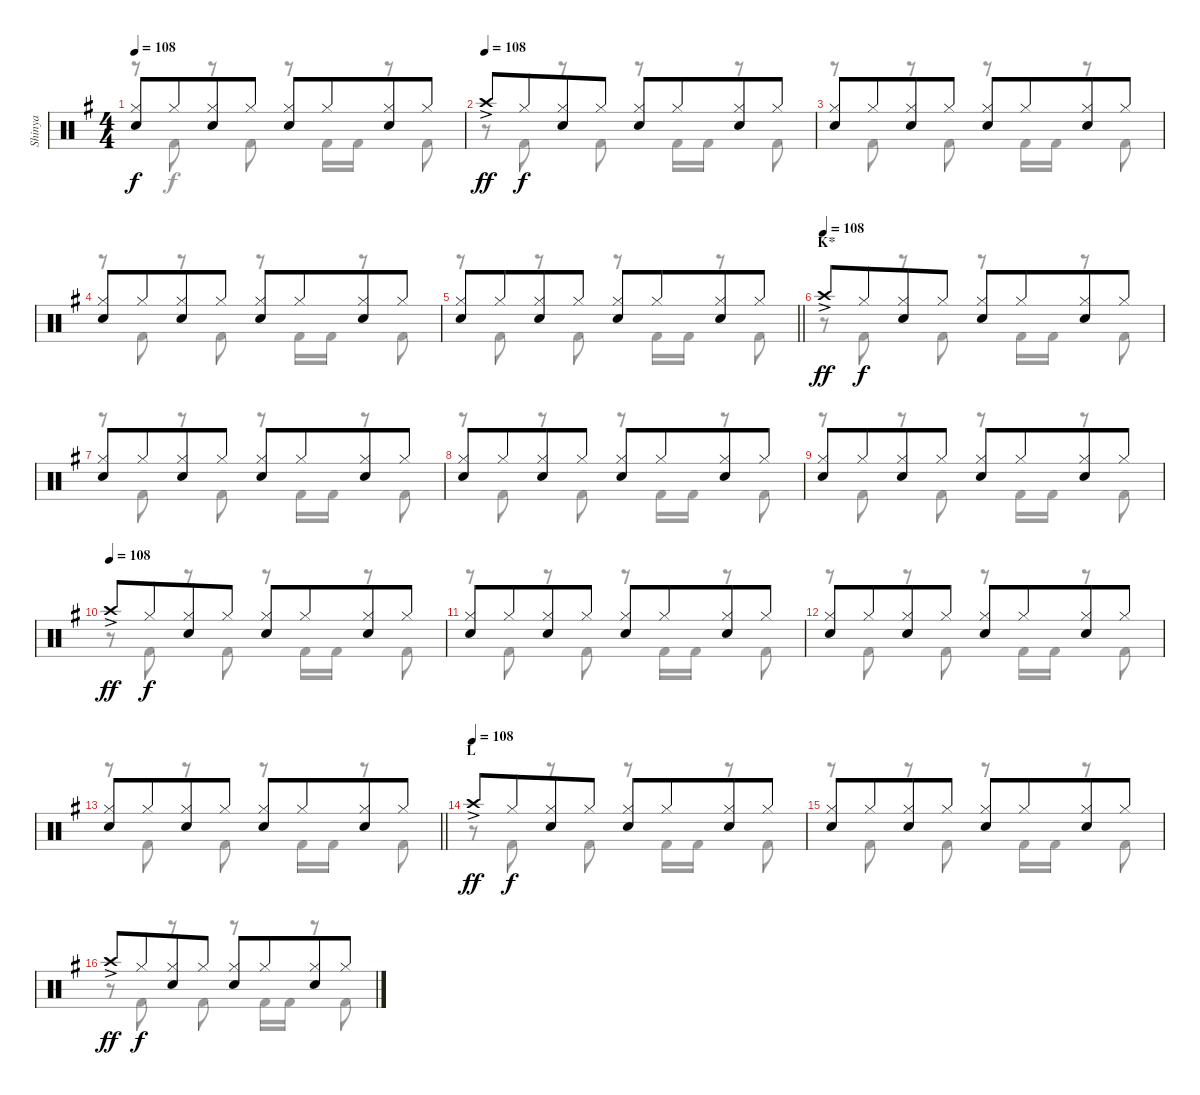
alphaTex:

\track ("Shinya" "Shinya") {instrument percussion}
\staff {score}
\articulation defaults
\voice
\ts (4 4)
\tempo 108
\clef neutral
\ks eminor
("Hi-Hat (closed)" "Snare (hit) 2").8{dy f} "Hi-Hat (closed)".8{beam merge} ("Hi-Hat (closed)" "Snare (hit) 2").8 "Hi-Hat (closed)".8 ("Hi-Hat (closed)" "Snare (hit) 2").8 "Hi-Hat (closed)".8{beam merge} ("Hi-Hat (closed)" "Snare (hit) 2").8 "Hi-Hat (closed)".8 |
\tempo (108)
"Crash high (hit)"{ac}.8{dy ff} "Hi-Hat (closed)".8{dy f beam merge} ("Hi-Hat (closed)" "Snare (hit) 2").8 "Hi-Hat (closed)".8 ("Hi-Hat (closed)" "Snare (hit) 2").8 "Hi-Hat (closed)".8{beam merge} ("Hi-Hat (closed)" "Snare (hit) 2").8 "Hi-Hat (closed)".8 |
("Hi-Hat (closed)" "Snare (hit) 2").8 "Hi-Hat (closed)".8{beam merge} ("Hi-Hat (closed)" "Snare (hit) 2").8 "Hi-Hat (closed)".8 ("Hi-Hat (closed)" "Snare (hit) 2").8 "Hi-Hat (closed)".8{beam merge} ("Hi-Hat (closed)" "Snare (hit) 2").8 "Hi-Hat (closed)".8 |
("Hi-Hat (closed)" "Snare (hit) 2").8 "Hi-Hat (closed)".8{beam merge} ("Hi-Hat (closed)" "Snare (hit) 2").8 "Hi-Hat (closed)".8 ("Hi-Hat (closed)" "Snare (hit) 2").8 "Hi-Hat (closed)".8{beam merge} ("Hi-Hat (closed)" "Snare (hit) 2").8 "Hi-Hat (closed)".8 |
\barLineRight lightlight
("Hi-Hat (closed)" "Snare (hit) 2").8 "Hi-Hat (closed)".8{beam merge} ("Hi-Hat (closed)" "Snare (hit) 2").8 "Hi-Hat (closed)".8 ("Hi-Hat (closed)" "Snare (hit) 2").8 "Hi-Hat (closed)".8{beam merge} ("Hi-Hat (closed)" "Snare (hit) 2").8 "Hi-Hat (closed)".8 |
\section ("" "K*")
\tempo (108)
"Crash high (hit)"{ac}.8{dy ff} "Hi-Hat (closed)".8{dy f beam merge} ("Hi-Hat (closed)" "Snare (hit) 2").8 "Hi-Hat (closed)".8 ("Hi-Hat (closed)" "Snare (hit) 2").8 "Hi-Hat (closed)".8{beam merge} ("Hi-Hat (closed)" "Snare (hit) 2").8 "Hi-Hat (closed)".8 |
("Hi-Hat (closed)" "Snare (hit) 2").8 "Hi-Hat (closed)".8{beam merge} ("Hi-Hat (closed)" "Snare (hit) 2").8 "Hi-Hat (closed)".8 ("Hi-Hat (closed)" "Snare (hit) 2").8 "Hi-Hat (closed)".8{beam merge} ("Hi-Hat (closed)" "Snare (hit) 2").8 "Hi-Hat (closed)".8 |
("Hi-Hat (closed)" "Snare (hit) 2").8 "Hi-Hat (closed)".8{beam merge} ("Hi-Hat (closed)" "Snare (hit) 2").8 "Hi-Hat (closed)".8 ("Hi-Hat (closed)" "Snare (hit) 2").8 "Hi-Hat (closed)".8{beam merge} ("Hi-Hat (closed)" "Snare (hit) 2").8 "Hi-Hat (closed)".8 |
("Hi-Hat (closed)" "Snare (hit) 2").8 "Hi-Hat (closed)".8{beam merge} ("Hi-Hat (closed)" "Snare (hit) 2").8 "Hi-Hat (closed)".8 ("Hi-Hat (closed)" "Snare (hit) 2").8 "Hi-Hat (closed)".8{beam merge} ("Hi-Hat (closed)" "Snare (hit) 2").8 "Hi-Hat (closed)".8 |
\tempo (108)
"Crash high (hit)"{ac}.8{dy ff} "Hi-Hat (closed)".8{dy f beam merge} ("Hi-Hat (closed)" "Snare (hit) 2").8 "Hi-Hat (closed)".8 ("Hi-Hat (closed)" "Snare (hit) 2").8 "Hi-Hat (closed)".8{beam merge} ("Hi-Hat (closed)" "Snare (hit) 2").8 "Hi-Hat (closed)".8 |
("Hi-Hat (closed)" "Snare (hit) 2").8 "Hi-Hat (closed)".8{beam merge} ("Hi-Hat (closed)" "Snare (hit) 2").8 "Hi-Hat (closed)".8 ("Hi-Hat (closed)" "Snare (hit) 2").8 "Hi-Hat (closed)".8{beam merge} ("Hi-Hat (closed)" "Snare (hit) 2").8 "Hi-Hat (closed)".8 |
("Hi-Hat (closed)" "Snare (hit) 2").8 "Hi-Hat (closed)".8{beam merge} ("Hi-Hat (closed)" "Snare (hit) 2").8 "Hi-Hat (closed)".8 ("Hi-Hat (closed)" "Snare (hit) 2").8 "Hi-Hat (closed)".8{beam merge} ("Hi-Hat (closed)" "Snare (hit) 2").8 "Hi-Hat (closed)".8 |
\barLineRight lightlight
("Hi-Hat (closed)" "Snare (hit) 2").8 "Hi-Hat (closed)".8{beam merge} ("Hi-Hat (closed)" "Snare (hit) 2").8 "Hi-Hat (closed)".8 ("Hi-Hat (closed)" "Snare (hit) 2").8 "Hi-Hat (closed)".8{beam merge} ("Hi-Hat (closed)" "Snare (hit) 2").8 "Hi-Hat (closed)".8 |
\section ("" "L")
\tempo (108)
"Crash high (hit)"{ac}.8{dy ff} "Hi-Hat (closed)".8{dy f beam merge} ("Hi-Hat (closed)" "Snare (hit) 2").8 "Hi-Hat (closed)".8 ("Hi-Hat (closed)" "Snare (hit) 2").8 "Hi-Hat (closed)".8{beam merge} ("Hi-Hat (closed)" "Snare (hit) 2").8 "Hi-Hat (closed)".8 |
("Hi-Hat (closed)" "Snare (hit) 2").8 "Hi-Hat (closed)".8{beam merge} ("Hi-Hat (closed)" "Snare (hit) 2").8 "Hi-Hat (closed)".8 ("Hi-Hat (closed)" "Snare (hit) 2").8 "Hi-Hat (closed)".8{beam merge} ("Hi-Hat (closed)" "Snare (hit) 2").8 "Hi-Hat (closed)".8 |
"Crash high (hit)"{ac}.8{dy ff} "Hi-Hat (closed)".8{dy f beam merge} ("Hi-Hat (closed)" "Snare (hit) 2").8 "Hi-Hat (closed)".8 ("Hi-Hat (closed)" "Snare (hit) 2").8 "Hi-Hat (closed)".8{beam merge} ("Hi-Hat (closed)" "Snare (hit) 2").8 "Hi-Hat (closed)".8
\voice
\clef neutral
\ottava regular
\simile none
\ks eminor
r.8{dy f} "Kick (hit) 2".8 r.8 "Kick (hit) 2".8 r.8 "Kick (hit) 2".16 "Kick (hit) 2".16 r.8 "Kick (hit) 2".8 |
r.8 "Kick (hit) 2".8 r.8 "Kick (hit) 2".8 r.8 "Kick (hit) 2".16 "Kick (hit) 2".16 r.8 "Kick (hit) 2".8 |
r.8 "Kick (hit) 2".8 r.8 "Kick (hit) 2".8 r.8 "Kick (hit) 2".16 "Kick (hit) 2".16 r.8 "Kick (hit) 2".8 |
r.8 "Kick (hit) 2".8 r.8 "Kick (hit) 2".8 r.8 "Kick (hit) 2".16 "Kick (hit) 2".16 r.8 "Kick (hit) 2".8 |
\barLineRight lightlight
r.8 "Kick (hit) 2".8 r.8 "Kick (hit) 2".8 r.8 "Kick (hit) 2".16 "Kick (hit) 2".16 r.8 "Kick (hit) 2".8 |
r.8 "Kick (hit) 2".8 r.8 "Kick (hit) 2".8 r.8 "Kick (hit) 2".16 "Kick (hit) 2".16 r.8 "Kick (hit) 2".8 |
r.8 "Kick (hit) 2".8 r.8 "Kick (hit) 2".8 r.8 "Kick (hit) 2".16 "Kick (hit) 2".16 r.8 "Kick (hit) 2".8 |
r.8 "Kick (hit) 2".8 r.8 "Kick (hit) 2".8 r.8 "Kick (hit) 2".16 "Kick (hit) 2".16 r.8 "Kick (hit) 2".8 |
r.8 "Kick (hit) 2".8 r.8 "Kick (hit) 2".8 r.8 "Kick (hit) 2".16 "Kick (hit) 2".16 r.8 "Kick (hit) 2".8 |
r.8 "Kick (hit) 2".8 r.8 "Kick (hit) 2".8 r.8 "Kick (hit) 2".16 "Kick (hit) 2".16 r.8 "Kick (hit) 2".8 |
r.8 "Kick (hit) 2".8 r.8 "Kick (hit) 2".8 r.8 "Kick (hit) 2".16 "Kick (hit) 2".16 r.8 "Kick (hit) 2".8 |
r.8 "Kick (hit) 2".8 r.8 "Kick (hit) 2".8 r.8 "Kick (hit) 2".16 "Kick (hit) 2".16 r.8 "Kick (hit) 2".8 |
\barLineRight lightlight
r.8 "Kick (hit) 2".8 r.8 "Kick (hit) 2".8 r.8 "Kick (hit) 2".16 "Kick (hit) 2".16 r.8 "Kick (hit) 2".8 |
r.8 "Kick (hit) 2".8 r.8 "Kick (hit) 2".8 r.8 "Kick (hit) 2".16 "Kick (hit) 2".16 r.8 "Kick (hit) 2".8 |
r.8 "Kick (hit) 2".8 r.8 "Kick (hit) 2".8 r.8 "Kick (hit) 2".16 "Kick (hit) 2".16 r.8 "Kick (hit) 2".8 |
r.8 "Kick (hit) 2".8 r.8 "Kick (hit) 2".8 r.8 "Kick (hit) 2".16 "Kick (hit) 2".16 r.8 "Kick (hit) 2".8
